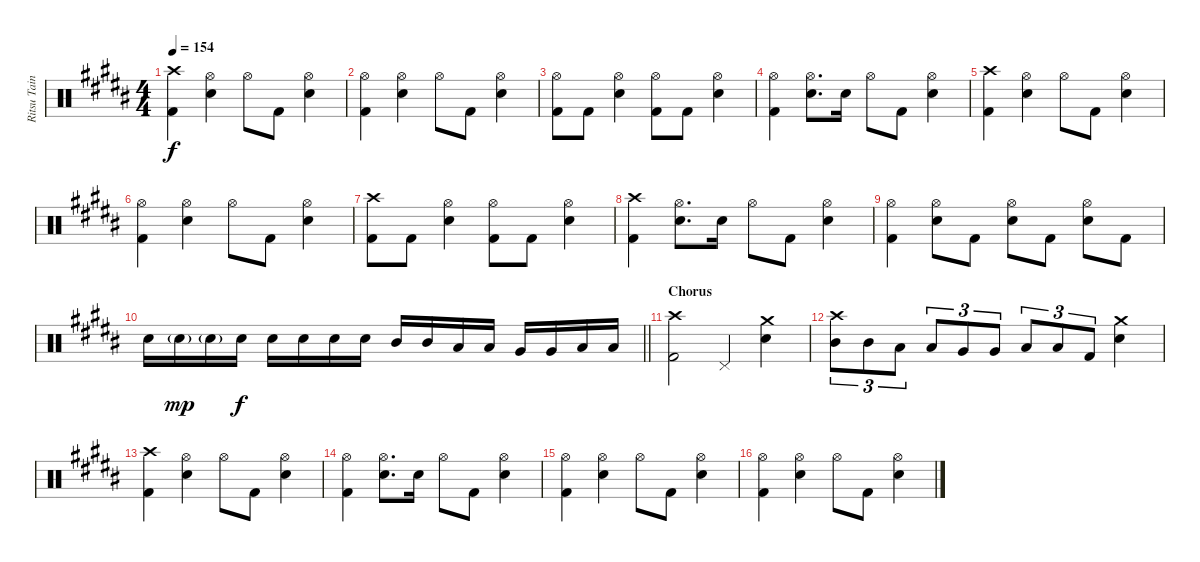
\track ("Ritsu Tainaka" "Ritsu Tain") {instrument percussion}
\staff {score}
\articulation defaults
\ts (4 4)
\tempo 154
\clef neutral
\ks b
("Crash high (hit)" "Kick (hit) 2").4{dy f} ("Hi-Hat (open)" "Snare (hit) 2").4 "Hi-Hat (open)".8 "Kick (hit) 2".8 ("Hi-Hat (open)" "Snare (hit) 2").4 |
("Hi-Hat (open)" "Kick (hit) 2").4 ("Hi-Hat (open)" "Snare (hit) 2").4 "Hi-Hat (open)".8 "Kick (hit) 2".8 ("Hi-Hat (open)" "Snare (hit) 2").4 |
("Hi-Hat (open)" "Kick (hit) 2").8 "Kick (hit) 2".8 ("Hi-Hat (open)" "Snare (hit) 2").4 ("Hi-Hat (open)" "Kick (hit) 2").8 "Kick (hit) 2".8 ("Hi-Hat (open)" "Snare (hit) 2").4 |
("Hi-Hat (open)" "Kick (hit) 2").4 ("Hi-Hat (open)" "Snare (hit) 2").8{d} "Snare (hit) 2".16 "Hi-Hat (open)".8 "Kick (hit) 2".8 ("Hi-Hat (open)" "Snare (hit) 2").4 |
("Crash high (hit)" "Kick (hit) 2").4 ("Hi-Hat (open)" "Snare (hit) 2").4 "Hi-Hat (open)".8 "Kick (hit) 2".8 ("Hi-Hat (open)" "Snare (hit) 2").4 |
("Hi-Hat (open)" "Kick (hit) 2").4 ("Hi-Hat (open)" "Snare (hit) 2").4 "Hi-Hat (open)".8 "Kick (hit) 2".8 ("Hi-Hat (open)" "Snare (hit) 2").4 |
("Crash high (hit)" "Kick (hit) 2").8 "Kick (hit) 2".8 ("Hi-Hat (open)" "Snare (hit) 2").4 ("Hi-Hat (open)" "Kick (hit) 2").8 "Kick (hit) 2".8 ("Hi-Hat (open)" "Snare (hit) 2").4 |
("Crash high (hit)" "Kick (hit) 2").4 ("Hi-Hat (open)" "Snare (hit) 2").8{d} "Snare (hit) 2".16 "Hi-Hat (open)".8 "Kick (hit) 2".8 ("Hi-Hat (open)" "Snare (hit) 2").4 |
("Hi-Hat (open)" "Kick (hit) 2").4 ("Hi-Hat (open)" "Snare (hit) 2").8 "Kick (hit) 2".8 ("Hi-Hat (open)" "Snare (hit) 2").8 "Kick (hit) 2".8 ("Hi-Hat (open)" "Snare (hit) 2").8 "Kick (hit) 2".8 |
\barLineRight lightlight "Snare (hit) 2".16 "Snare (hit) 2"{g}.16{dy mp} "Snare (hit) 2"{g}.16 "Snare (hit) 2".16{dy f} "Snare (hit) 2".16 "Snare (hit) 2".16 "Snare (hit) 2".16 "Snare (hit) 2".16 "Mid Tom (hit)".16 "Mid Tom (hit)".16 "Low Tom (hit)".16 "Low Tom (hit)".16 "Very Low Tom (hit)".16 "Very Low Tom (hit)".16 "Low Floor Tom (hit)".16 "Low Floor Tom (hit)".16
|
\section ("" "Chorus")
("Crash high (hit)" "Kick (hit) 2").2 "Pedal Hi-Hat (hit)".4 ("Crash medium (hit)" "Snare (hit) 2").4 |
("Crash high (hit)" "Mid Tom (hit)").8{tu (3 2)} "Mid Tom (hit)".8{tu (3 2)} "Low Tom (hit)".8{tu (3 2)} "Low Tom (hit)".8{tu (3 2)} "Very Low Tom (hit)".8{tu (3 2)} "Very Low Tom (hit)".8{tu (3 2)} "Low Floor Tom (hit)".8{tu (3 2)} "Low Floor Tom (hit)".8{tu (3 2)} "Kick (hit) 2".8{tu (3 2)} ("Crash medium (hit)" "Snare (hit) 2").4 |
("Crash high (hit)" "Kick (hit) 2").4 ("Hi-Hat (open)" "Snare (hit) 2").4 "Hi-Hat (open)".8 "Kick (hit) 2".8 ("Hi-Hat (open)" "Snare (hit) 2").4 |
("Hi-Hat (open)" "Kick (hit) 2").4 ("Hi-Hat (open)" "Snare (hit) 2").8{d} "Snare (hit) 2".16 "Hi-Hat (open)".8 "Kick (hit) 2".8 ("Hi-Hat (open)" "Snare (hit) 2").4 |
("Hi-Hat (open)" "Kick (hit) 2").4 ("Hi-Hat (open)" "Snare (hit) 2").4 "Hi-Hat (open)".8 "Kick (hit) 2".8 ("Hi-Hat (open)" "Snare (hit) 2").4 |
("Hi-Hat (open)" "Kick (hit) 2").4 ("Hi-Hat (open)" "Snare (hit) 2").4 "Hi-Hat (open)".8 "Kick (hit) 2".8 ("Hi-Hat (open)" "Snare (hit) 2").4
